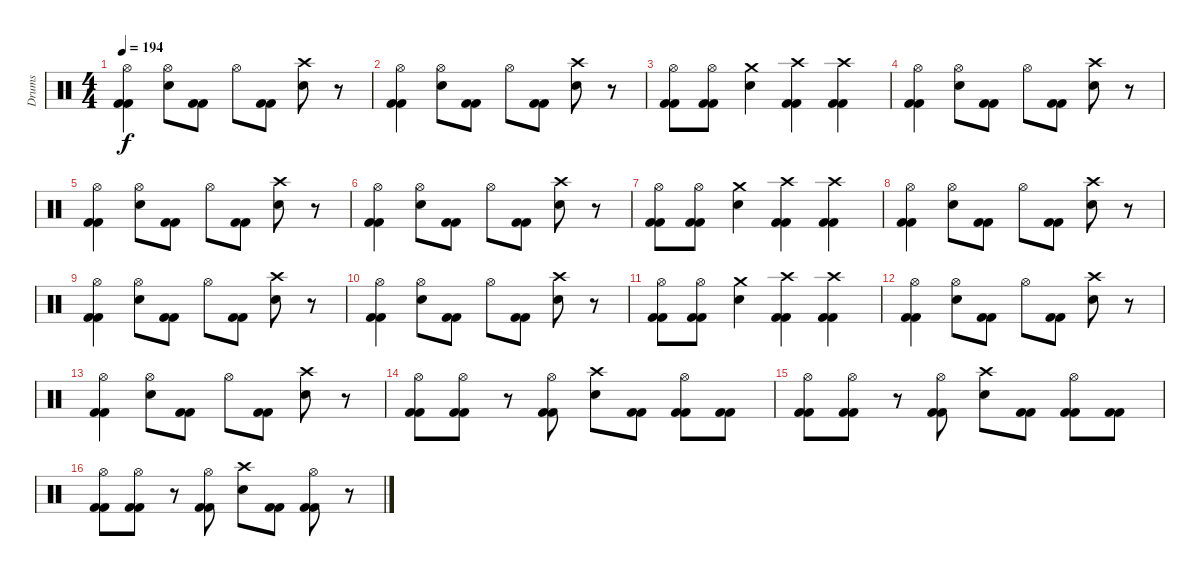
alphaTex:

\track ("Drums" "Drums") {instrument percussion}
\staff {score}
\articulation defaults
\ts (4 4)
\tempo 194
\clef neutral
\ks c
("Hi-Hat (open)" "Kick (hit) 2" "Kick (hit) 2").4{dy f} ("Hi-Hat (open)" "Electric Snare (hit)").8 ("Kick (hit) 2" "Kick (hit) 2").8 "Hi-Hat (open)".8 ("Kick (hit) 2" "Kick (hit) 2").8 ("Crash high (hit)" "Electric Snare (hit)").8 r.8 |
("Hi-Hat (open)" "Kick (hit) 2" "Kick (hit) 2").4 ("Hi-Hat (open)" "Electric Snare (hit)").8 ("Kick (hit) 2" "Kick (hit) 2").8 "Hi-Hat (open)".8 ("Kick (hit) 2" "Kick (hit) 2").8 ("Crash high (hit)" "Electric Snare (hit)").8 r.8 |
("Hi-Hat (open)" "Kick (hit) 2" "Kick (hit) 2").8 ("Hi-Hat (open)" "Kick (hit) 2" "Kick (hit) 2").8 ("Crash medium (hit)" "Electric Snare (hit)").4 ("Crash high (hit)" "Kick (hit) 2" "Kick (hit) 2").4 ("Crash high (hit)" "Kick (hit) 2" "Kick (hit) 2").4 |
("Hi-Hat (open)" "Kick (hit) 2" "Kick (hit) 2").4 ("Hi-Hat (open)" "Electric Snare (hit)").8 ("Kick (hit) 2" "Kick (hit) 2").8 "Hi-Hat (open)".8 ("Kick (hit) 2" "Kick (hit) 2").8 ("Crash high (hit)" "Electric Snare (hit)").8 r.8 |
("Hi-Hat (open)" "Kick (hit) 2" "Kick (hit) 2").4 ("Hi-Hat (open)" "Electric Snare (hit)").8 ("Kick (hit) 2" "Kick (hit) 2").8 "Hi-Hat (open)".8 ("Kick (hit) 2" "Kick (hit) 2").8 ("Crash high (hit)" "Electric Snare (hit)").8 r.8 |
("Hi-Hat (open)" "Kick (hit) 2" "Kick (hit) 2").4 ("Hi-Hat (open)" "Electric Snare (hit)").8 ("Kick (hit) 2" "Kick (hit) 2").8 "Hi-Hat (open)".8 ("Kick (hit) 2" "Kick (hit) 2").8 ("Crash high (hit)" "Electric Snare (hit)").8 r.8 |
("Hi-Hat (open)" "Kick (hit) 2" "Kick (hit) 2").8 ("Hi-Hat (open)" "Kick (hit) 2" "Kick (hit) 2").8 ("Crash medium (hit)" "Electric Snare (hit)").4 ("Crash high (hit)" "Kick (hit) 2" "Kick (hit) 2").4 ("Crash high (hit)" "Kick (hit) 2" "Kick (hit) 2").4 |
("Hi-Hat (open)" "Kick (hit) 2" "Kick (hit) 2").4 ("Hi-Hat (open)" "Electric Snare (hit)").8 ("Kick (hit) 2" "Kick (hit) 2").8 "Hi-Hat (open)".8 ("Kick (hit) 2" "Kick (hit) 2").8 ("Crash high (hit)" "Electric Snare (hit)").8 r.8 |
("Hi-Hat (open)" "Kick (hit) 2" "Kick (hit) 2").4 ("Hi-Hat (open)" "Electric Snare (hit)").8 ("Kick (hit) 2" "Kick (hit) 2").8 "Hi-Hat (open)".8 ("Kick (hit) 2" "Kick (hit) 2").8 ("Crash high (hit)" "Electric Snare (hit)").8 r.8 |
("Hi-Hat (open)" "Kick (hit) 2" "Kick (hit) 2").4 ("Hi-Hat (open)" "Electric Snare (hit)").8 ("Kick (hit) 2" "Kick (hit) 2").8 "Hi-Hat (open)".8 ("Kick (hit) 2" "Kick (hit) 2").8 ("Crash high (hit)" "Electric Snare (hit)").8 r.8 |
("Hi-Hat (open)" "Kick (hit) 2" "Kick (hit) 2").8 ("Hi-Hat (open)" "Kick (hit) 2" "Kick (hit) 2").8 ("Crash medium (hit)" "Electric Snare (hit)").4 ("Crash high (hit)" "Kick (hit) 2" "Kick (hit) 2").4 ("Crash high (hit)" "Kick (hit) 2" "Kick (hit) 2").4 |
("Hi-Hat (open)" "Kick (hit) 2" "Kick (hit) 2").4 ("Hi-Hat (open)" "Electric Snare (hit)").8 ("Kick (hit) 2" "Kick (hit) 2").8 "Hi-Hat (open)".8 ("Kick (hit) 2" "Kick (hit) 2").8 ("Crash high (hit)" "Electric Snare (hit)").8 r.8 |
("Hi-Hat (open)" "Kick (hit) 2" "Kick (hit) 2").4 ("Hi-Hat (open)" "Electric Snare (hit)").8 ("Kick (hit) 2" "Kick (hit) 2").8 "Hi-Hat (open)".8 ("Kick (hit) 2" "Kick (hit) 2").8 ("Crash high (hit)" "Electric Snare (hit)").8 r.8 |
("Hi-Hat (open)" "Kick (hit) 2" "Kick (hit) 2").8 ("Hi-Hat (open)" "Kick (hit) 2" "Kick (hit) 2").8 r.8 ("Hi-Hat (open)" "Kick (hit) 2" "Kick (hit) 2").8 ("Crash high (hit)" "Electric Snare (hit)").8 ("Kick (hit) 2" "Kick (hit) 2").8 ("Hi-Hat (open)" "Kick (hit) 2" "Kick (hit) 2").8 ("Kick (hit) 2" "Kick (hit) 2").8 |
("Hi-Hat (open)" "Kick (hit) 2" "Kick (hit) 2").8 ("Hi-Hat (open)" "Kick (hit) 2" "Kick (hit) 2").8 r.8 ("Hi-Hat (open)" "Kick (hit) 2" "Kick (hit) 2").8 ("Crash high (hit)" "Electric Snare (hit)").8 ("Kick (hit) 2" "Kick (hit) 2").8 ("Hi-Hat (open)" "Kick (hit) 2" "Kick (hit) 2").8 ("Kick (hit) 2" "Kick (hit) 2").8 |
("Hi-Hat (open)" "Kick (hit) 2" "Kick (hit) 2").8 ("Hi-Hat (open)" "Kick (hit) 2" "Kick (hit) 2").8 r.8 ("Hi-Hat (open)" "Kick (hit) 2" "Kick (hit) 2").8 ("Crash high (hit)" "Electric Snare (hit)").8 ("Kick (hit) 2" "Kick (hit) 2").8 ("Hi-Hat (open)" "Kick (hit) 2" "Kick (hit) 2").8 r.8
